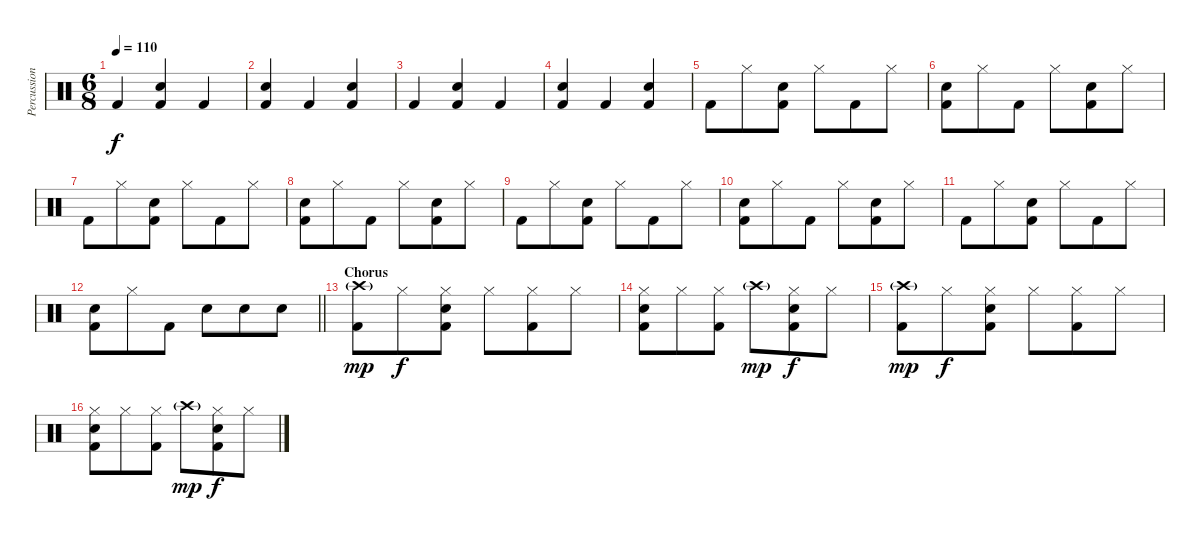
\track ("Percussion" "Percussion") {instrument percussion}
\staff {score}
\articulation defaults
\ts (6 8)
\tempo 110
\clef neutral
\ks c "Kick (hit) 2".4{dy f}
("Snare (hit) 2" "Kick (hit) 2").4 "Kick (hit) 2".4 |
("Snare (hit) 2" "Kick (hit) 2").4 "Kick (hit) 2".4 ("Snare (hit) 2" "Kick (hit) 2").4 |
"Kick (hit) 2".4 ("Snare (hit) 2" "Kick (hit) 2").4 "Kick (hit) 2".4 |
("Snare (hit) 2" "Kick (hit) 2").4 "Kick (hit) 2".4 ("Snare (hit) 2" "Kick (hit) 2").4 |
"Kick (hit) 2".8 "Hi-Hat (closed)".8 ("Snare (hit) 2" "Kick (hit) 2").8 "Hi-Hat (closed)".8 "Kick (hit) 2".8 "Hi-Hat (closed)".8 |
("Snare (hit) 2" "Kick (hit) 2").8 "Hi-Hat (closed)".8 "Kick (hit) 2".8 "Hi-Hat (closed)".8 ("Snare (hit) 2" "Kick (hit) 2").8 "Hi-Hat (closed)".8 |
"Kick (hit) 2".8 "Hi-Hat (closed)".8 ("Snare (hit) 2" "Kick (hit) 2").8 "Hi-Hat (closed)".8 "Kick (hit) 2".8 "Hi-Hat (closed)".8 |
("Snare (hit) 2" "Kick (hit) 2").8 "Hi-Hat (closed)".8 "Kick (hit) 2".8 "Hi-Hat (closed)".8 ("Snare (hit) 2" "Kick (hit) 2").8 "Hi-Hat (closed)".8 |
"Kick (hit) 2".8 "Hi-Hat (closed)".8 ("Snare (hit) 2" "Kick (hit) 2").8 "Hi-Hat (closed)".8 "Kick (hit) 2".8 "Hi-Hat (closed)".8 |
("Snare (hit) 2" "Kick (hit) 2").8 "Hi-Hat (closed)".8 "Kick (hit) 2".8 "Hi-Hat (closed)".8 ("Snare (hit) 2" "Kick (hit) 2").8 "Hi-Hat (closed)".8 |
"Kick (hit) 2".8 "Hi-Hat (closed)".8 ("Snare (hit) 2" "Kick (hit) 2").8 "Hi-Hat (closed)".8 "Kick (hit) 2".8 "Hi-Hat (closed)".8 |
\barLineRight lightlight
("Snare (hit) 2" "Kick (hit) 2").8 "Hi-Hat (closed)".8 "Kick (hit) 2".8 "Snare (hit) 2".8 "Snare (hit) 2".8 "Snare (hit) 2".8 |
\section ("" "Chorus")
("Crash high (hit)"{g} "Kick (hit) 2").8{dy mp} "Hi-Hat (closed)".8{dy f} ("Hi-Hat (closed)" "Snare (hit) 2" "Kick (hit) 2").8 "Hi-Hat (closed)".8 ("Hi-Hat (closed)" "Kick (hit) 2").8 "Hi-Hat (closed)".8 |
("Hi-Hat (closed)" "Snare (hit) 2" "Kick (hit) 2").8 "Hi-Hat (closed)".8 ("Hi-Hat (closed)" "Kick (hit) 2").8 "Crash high (hit)"{g}.8{dy mp} ("Hi-Hat (closed)" "Snare (hit) 2" "Kick (hit) 2").8{dy f} "Hi-Hat (closed)".8 |
("Crash high (hit)"{g} "Kick (hit) 2").8{dy mp} "Hi-Hat (closed)".8{dy f} ("Hi-Hat (closed)" "Snare (hit) 2" "Kick (hit) 2").8 "Hi-Hat (closed)".8 ("Hi-Hat (closed)" "Kick (hit) 2").8 "Hi-Hat (closed)".8 |
("Hi-Hat (closed)" "Snare (hit) 2" "Kick (hit) 2").8 "Hi-Hat (closed)".8 ("Hi-Hat (closed)" "Kick (hit) 2").8 "Crash high (hit)"{g}.8{dy mp} ("Hi-Hat (closed)" "Snare (hit) 2" "Kick (hit) 2").8{dy f} "Hi-Hat (closed)".8
